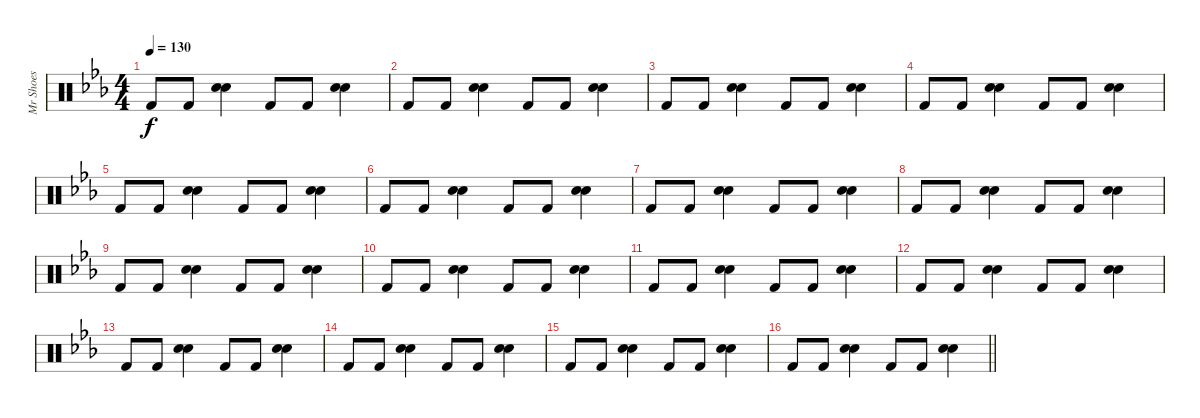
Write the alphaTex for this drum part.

\track ("Mr Shoes " "Mr Shoes ") {instrument percussion}
\staff {score}
\articulation defaults
\ts (4 4)
\tempo 130
\clef neutral
\ks eb "Kick (hit) 2".8{dy f} "Kick (hit) 2".8
("Electric Snare (hit)" "Snare (hit) 2").4 "Kick (hit) 2".8 "Kick (hit) 2".8 ("Electric Snare (hit)" "Snare (hit) 2").4 |
"Kick (hit) 2".8 "Kick (hit) 2".8 ("Electric Snare (hit)" "Snare (hit) 2").4 "Kick (hit) 2".8 "Kick (hit) 2".8 ("Electric Snare (hit)" "Snare (hit) 2").4 |
"Kick (hit) 2".8 "Kick (hit) 2".8 ("Electric Snare (hit)" "Snare (hit) 2").4 "Kick (hit) 2".8 "Kick (hit) 2".8 ("Electric Snare (hit)" "Snare (hit) 2").4 |
"Kick (hit) 2".8 "Kick (hit) 2".8 ("Electric Snare (hit)" "Snare (hit) 2").4 "Kick (hit) 2".8 "Kick (hit) 2".8 ("Electric Snare (hit)" "Snare (hit) 2").4 |
"Kick (hit) 2".8 "Kick (hit) 2".8 ("Electric Snare (hit)" "Snare (hit) 2").4 "Kick (hit) 2".8 "Kick (hit) 2".8 ("Electric Snare (hit)" "Snare (hit) 2").4 |
"Kick (hit) 2".8 "Kick (hit) 2".8 ("Electric Snare (hit)" "Snare (hit) 2").4 "Kick (hit) 2".8 "Kick (hit) 2".8 ("Electric Snare (hit)" "Snare (hit) 2").4 |
"Kick (hit) 2".8 "Kick (hit) 2".8 ("Electric Snare (hit)" "Snare (hit) 2").4 "Kick (hit) 2".8 "Kick (hit) 2".8 ("Electric Snare (hit)" "Snare (hit) 2").4 |
"Kick (hit) 2".8 "Kick (hit) 2".8 ("Electric Snare (hit)" "Snare (hit) 2").4 "Kick (hit) 2".8 "Kick (hit) 2".8 ("Electric Snare (hit)" "Snare (hit) 2").4 |
"Kick (hit) 2".8 "Kick (hit) 2".8 ("Electric Snare (hit)" "Snare (hit) 2").4 "Kick (hit) 2".8 "Kick (hit) 2".8 ("Electric Snare (hit)" "Snare (hit) 2").4 |
"Kick (hit) 2".8 "Kick (hit) 2".8 ("Electric Snare (hit)" "Snare (hit) 2").4 "Kick (hit) 2".8 "Kick (hit) 2".8 ("Electric Snare (hit)" "Snare (hit) 2").4 |
"Kick (hit) 2".8 "Kick (hit) 2".8 ("Electric Snare (hit)" "Snare (hit) 2").4 "Kick (hit) 2".8 "Kick (hit) 2".8 ("Electric Snare (hit)" "Snare (hit) 2").4 |
"Kick (hit) 2".8 "Kick (hit) 2".8 ("Electric Snare (hit)" "Snare (hit) 2").4 "Kick (hit) 2".8 "Kick (hit) 2".8 ("Electric Snare (hit)" "Snare (hit) 2").4 |
"Kick (hit) 2".8 "Kick (hit) 2".8 ("Electric Snare (hit)" "Snare (hit) 2").4 "Kick (hit) 2".8 "Kick (hit) 2".8 ("Electric Snare (hit)" "Snare (hit) 2").4 |
"Kick (hit) 2".8 "Kick (hit) 2".8 ("Electric Snare (hit)" "Snare (hit) 2").4 "Kick (hit) 2".8 "Kick (hit) 2".8 ("Electric Snare (hit)" "Snare (hit) 2").4 |
"Kick (hit) 2".8 "Kick (hit) 2".8 ("Electric Snare (hit)" "Snare (hit) 2").4 "Kick (hit) 2".8 "Kick (hit) 2".8 ("Electric Snare (hit)" "Snare (hit) 2").4 |
\barLineRight lightlight "Kick (hit) 2".8 "Kick (hit) 2".8
("Electric Snare (hit)" "Snare (hit) 2").4 "Kick (hit) 2".8 "Kick (hit) 2".8 ("Electric Snare (hit)" "Snare (hit) 2").4
